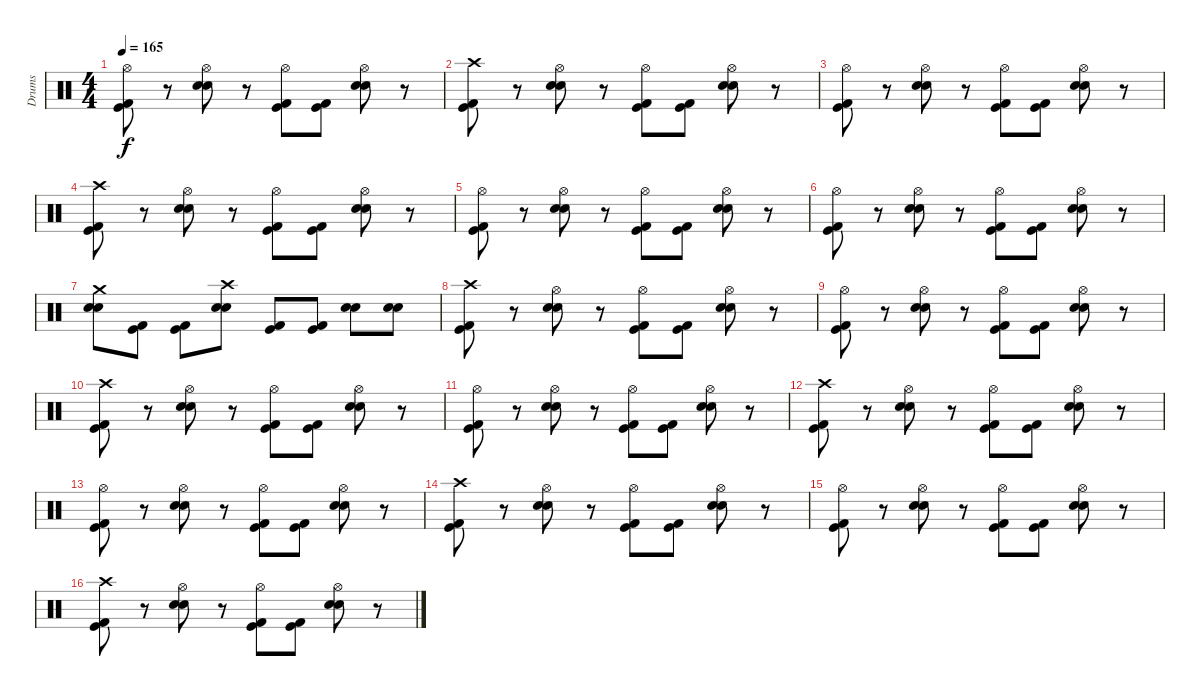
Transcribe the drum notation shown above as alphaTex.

\track ("Drums" "Drums") {instrument percussion}
\staff {score}
\articulation defaults
\ts (4 4)
\tempo 165
\clef neutral
\ks c
("Hi-Hat (open)" "Kick (hit) 2" "Kick (hit)").8{dy f} r.8 ("Hi-Hat (open)" "Electric Snare (hit)" "Snare (hit) 2").8 r.8 ("Hi-Hat (open)" "Kick (hit) 2" "Kick (hit)").8 ("Kick (hit) 2" "Kick (hit)").8 ("Hi-Hat (open)" "Electric Snare (hit)" "Snare (hit) 2").8 r.8 |
("Crash high (hit)" "Kick (hit) 2" "Kick (hit)").8 r.8 ("Hi-Hat (open)" "Electric Snare (hit)" "Snare (hit) 2").8 r.8 ("Hi-Hat (open)" "Kick (hit) 2" "Kick (hit)").8 ("Kick (hit) 2" "Kick (hit)").8 ("Hi-Hat (open)" "Electric Snare (hit)" "Snare (hit) 2").8 r.8 |
("Hi-Hat (open)" "Kick (hit) 2" "Kick (hit)").8 r.8 ("Hi-Hat (open)" "Electric Snare (hit)" "Snare (hit) 2").8 r.8 ("Hi-Hat (open)" "Kick (hit) 2" "Kick (hit)").8 ("Kick (hit) 2" "Kick (hit)").8 ("Hi-Hat (open)" "Electric Snare (hit)" "Snare (hit) 2").8 r.8 |
("Crash high (hit)" "Kick (hit) 2" "Kick (hit)").8 r.8 ("Hi-Hat (open)" "Electric Snare (hit)" "Snare (hit) 2").8 r.8 ("Hi-Hat (open)" "Kick (hit) 2" "Kick (hit)").8 ("Kick (hit) 2" "Kick (hit)").8 ("Hi-Hat (open)" "Electric Snare (hit)" "Snare (hit) 2").8 r.8 |
("Hi-Hat (open)" "Kick (hit) 2" "Kick (hit)").8 r.8 ("Hi-Hat (open)" "Electric Snare (hit)" "Snare (hit) 2").8 r.8 ("Hi-Hat (open)" "Kick (hit) 2" "Kick (hit)").8 ("Kick (hit) 2" "Kick (hit)").8 ("Hi-Hat (open)" "Electric Snare (hit)" "Snare (hit) 2").8 r.8 |
("Hi-Hat (open)" "Kick (hit) 2" "Kick (hit)").8 r.8 ("Hi-Hat (open)" "Electric Snare (hit)" "Snare (hit) 2").8 r.8 ("Hi-Hat (open)" "Kick (hit) 2" "Kick (hit)").8 ("Kick (hit) 2" "Kick (hit)").8 ("Hi-Hat (open)" "Electric Snare (hit)" "Snare (hit) 2").8 r.8 |
("Electric Snare (hit)" "Snare (hit) 2" "Crash medium (hit)").8 ("Kick (hit) 2" "Kick (hit)").8 ("Kick (hit) 2" "Kick (hit)").8 ("Electric Snare (hit)" "Snare (hit) 2" "Crash high (hit)").8 ("Kick (hit) 2" "Kick (hit)").8 ("Kick (hit) 2" "Kick (hit)").8 ("Electric Snare (hit)" "Snare (hit) 2").8 ("Electric Snare (hit)" "Snare (hit) 2").8 |
("Crash high (hit)" "Kick (hit) 2" "Kick (hit)").8 r.8 ("Hi-Hat (open)" "Electric Snare (hit)" "Snare (hit) 2").8 r.8 ("Hi-Hat (open)" "Kick (hit) 2" "Kick (hit)").8 ("Kick (hit) 2" "Kick (hit)").8 ("Hi-Hat (open)" "Electric Snare (hit)" "Snare (hit) 2").8 r.8 |
("Hi-Hat (open)" "Kick (hit) 2" "Kick (hit)").8 r.8 ("Hi-Hat (open)" "Electric Snare (hit)" "Snare (hit) 2").8 r.8 ("Hi-Hat (open)" "Kick (hit) 2" "Kick (hit)").8 ("Kick (hit) 2" "Kick (hit)").8 ("Hi-Hat (open)" "Electric Snare (hit)" "Snare (hit) 2").8 r.8 |
("Crash high (hit)" "Kick (hit) 2" "Kick (hit)").8 r.8 ("Hi-Hat (open)" "Electric Snare (hit)" "Snare (hit) 2").8 r.8 ("Hi-Hat (open)" "Kick (hit) 2" "Kick (hit)").8 ("Kick (hit) 2" "Kick (hit)").8 ("Hi-Hat (open)" "Electric Snare (hit)" "Snare (hit) 2").8 r.8 |
("Hi-Hat (open)" "Kick (hit) 2" "Kick (hit)").8 r.8 ("Hi-Hat (open)" "Electric Snare (hit)" "Snare (hit) 2").8 r.8 ("Hi-Hat (open)" "Kick (hit) 2" "Kick (hit)").8 ("Kick (hit) 2" "Kick (hit)").8 ("Hi-Hat (open)" "Electric Snare (hit)" "Snare (hit) 2").8 r.8 |
("Crash high (hit)" "Kick (hit) 2" "Kick (hit)").8 r.8 ("Hi-Hat (open)" "Electric Snare (hit)" "Snare (hit) 2").8 r.8 ("Hi-Hat (open)" "Kick (hit) 2" "Kick (hit)").8 ("Kick (hit) 2" "Kick (hit)").8 ("Hi-Hat (open)" "Electric Snare (hit)" "Snare (hit) 2").8 r.8 |
("Hi-Hat (open)" "Kick (hit) 2" "Kick (hit)").8 r.8 ("Hi-Hat (open)" "Electric Snare (hit)" "Snare (hit) 2").8 r.8 ("Hi-Hat (open)" "Kick (hit) 2" "Kick (hit)").8 ("Kick (hit) 2" "Kick (hit)").8 ("Hi-Hat (open)" "Electric Snare (hit)" "Snare (hit) 2").8 r.8 |
("Crash high (hit)" "Kick (hit) 2" "Kick (hit)").8 r.8 ("Hi-Hat (open)" "Electric Snare (hit)" "Snare (hit) 2").8 r.8 ("Hi-Hat (open)" "Kick (hit) 2" "Kick (hit)").8 ("Kick (hit) 2" "Kick (hit)").8 ("Hi-Hat (open)" "Electric Snare (hit)" "Snare (hit) 2").8 r.8 |
("Hi-Hat (open)" "Kick (hit) 2" "Kick (hit)").8 r.8 ("Hi-Hat (open)" "Electric Snare (hit)" "Snare (hit) 2").8 r.8 ("Hi-Hat (open)" "Kick (hit) 2" "Kick (hit)").8 ("Kick (hit) 2" "Kick (hit)").8 ("Hi-Hat (open)" "Electric Snare (hit)" "Snare (hit) 2").8 r.8 |
("Crash high (hit)" "Kick (hit) 2" "Kick (hit)").8 r.8 ("Hi-Hat (open)" "Electric Snare (hit)" "Snare (hit) 2").8 r.8 ("Hi-Hat (open)" "Kick (hit) 2" "Kick (hit)").8 ("Kick (hit) 2" "Kick (hit)").8 ("Hi-Hat (open)" "Electric Snare (hit)" "Snare (hit) 2").8 r.8
